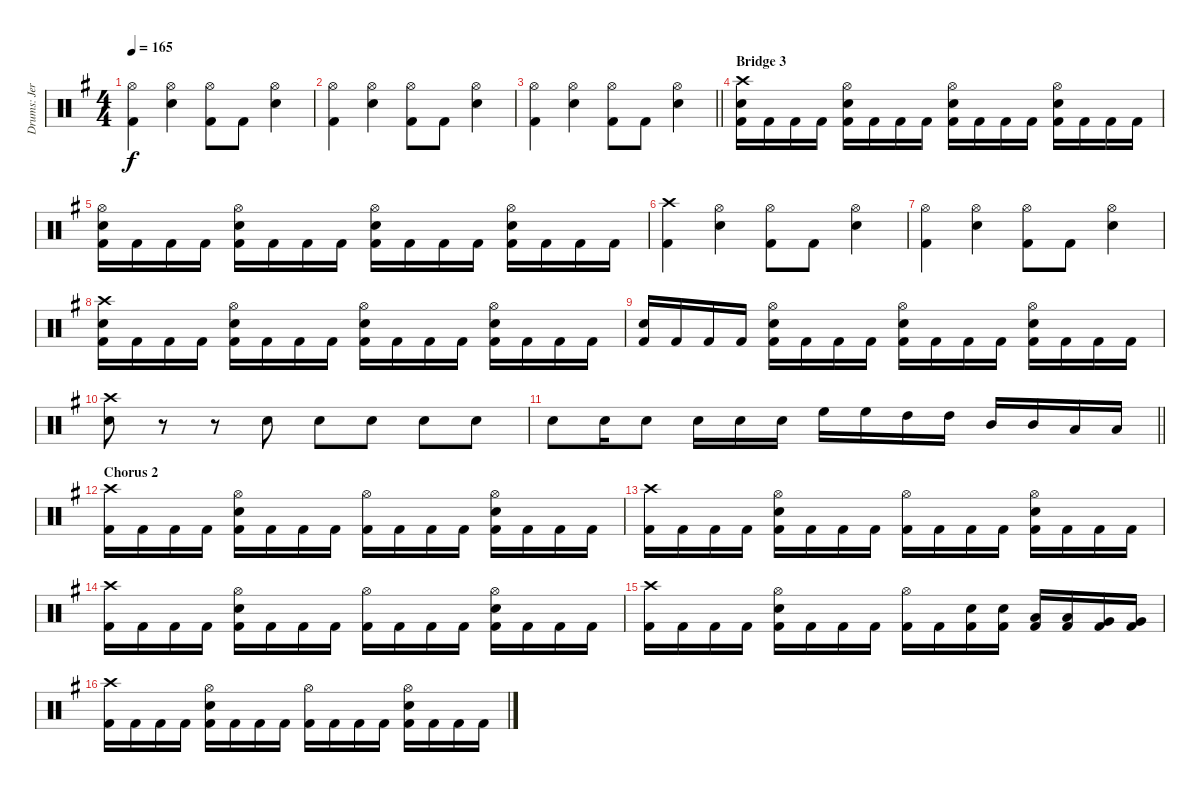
\track ("Drums: Jere Luokkamäki" "Drums: Jer") {instrument percussion}
\staff {score}
\articulation defaults
\ts (4 4)
\tempo 165
\clef neutral
\ks eminor
("Hi-Hat (open)" "Kick (hit) 2").4{dy f} ("Hi-Hat (open)" "Electric Snare (hit)").4 ("Hi-Hat (open)" "Kick (hit) 2").8 "Kick (hit) 2".8 ("Hi-Hat (open)" "Electric Snare (hit)").4 |
("Hi-Hat (open)" "Kick (hit) 2").4 ("Hi-Hat (open)" "Electric Snare (hit)").4 ("Hi-Hat (open)" "Kick (hit) 2").8 "Kick (hit) 2".8 ("Hi-Hat (open)" "Electric Snare (hit)").4 |
\barLineRight lightlight
("Hi-Hat (open)" "Kick (hit) 2").4 ("Hi-Hat (open)" "Electric Snare (hit)").4 ("Hi-Hat (open)" "Kick (hit) 2").8 "Kick (hit) 2".8 ("Hi-Hat (open)" "Electric Snare (hit)").4 |
\section ("" "Bridge 3")
("Crash high (hit)" "Electric Snare (hit)" "Kick (hit) 2").16 "Kick (hit) 2".16 "Kick (hit) 2".16 "Kick (hit) 2".16 ("Hi-Hat (open)" "Electric Snare (hit)" "Kick (hit) 2").16 "Kick (hit) 2".16 "Kick (hit) 2".16 "Kick (hit) 2".16 ("Hi-Hat (open)" "Electric Snare (hit)" "Kick (hit) 2").16 "Kick (hit) 2".16 "Kick (hit) 2".16 "Kick (hit) 2".16 ("Hi-Hat (open)" "Electric Snare (hit)" "Kick (hit) 2").16 "Kick (hit) 2".16 "Kick (hit) 2".16 "Kick (hit) 2".16 |
("Hi-Hat (open)" "Electric Snare (hit)" "Kick (hit) 2").16 "Kick (hit) 2".16 "Kick (hit) 2".16 "Kick (hit) 2".16 ("Hi-Hat (open)" "Electric Snare (hit)" "Kick (hit) 2").16 "Kick (hit) 2".16 "Kick (hit) 2".16 "Kick (hit) 2".16 ("Hi-Hat (open)" "Electric Snare (hit)" "Kick (hit) 2").16 "Kick (hit) 2".16 "Kick (hit) 2".16 "Kick (hit) 2".16 ("Hi-Hat (open)" "Electric Snare (hit)" "Kick (hit) 2").16 "Kick (hit) 2".16 "Kick (hit) 2".16 "Kick (hit) 2".16 |
("Crash high (hit)" "Kick (hit) 2").4 ("Hi-Hat (open)" "Electric Snare (hit)").4 ("Hi-Hat (open)" "Kick (hit) 2").8 "Kick (hit) 2".8 ("Hi-Hat (open)" "Electric Snare (hit)").4 |
("Hi-Hat (open)" "Kick (hit) 2").4 ("Hi-Hat (open)" "Electric Snare (hit)").4 ("Hi-Hat (open)" "Kick (hit) 2").8 "Kick (hit) 2".8 ("Hi-Hat (open)" "Electric Snare (hit)").4 |
("Crash high (hit)" "Electric Snare (hit)" "Kick (hit) 2").16 "Kick (hit) 2".16 "Kick (hit) 2".16 "Kick (hit) 2".16 ("Hi-Hat (open)" "Electric Snare (hit)" "Kick (hit) 2").16 "Kick (hit) 2".16 "Kick (hit) 2".16 "Kick (hit) 2".16 ("Hi-Hat (open)" "Electric Snare (hit)" "Kick (hit) 2").16 "Kick (hit) 2".16 "Kick (hit) 2".16 "Kick (hit) 2".16 ("Hi-Hat (open)" "Electric Snare (hit)" "Kick (hit) 2").16 "Kick (hit) 2".16 "Kick (hit) 2".16 "Kick (hit) 2".16 |
("Electric Snare (hit)" "Kick (hit) 2").16 "Kick (hit) 2".16 "Kick (hit) 2".16 "Kick (hit) 2".16 ("Hi-Hat (open)" "Electric Snare (hit)" "Kick (hit) 2").16 "Kick (hit) 2".16 "Kick (hit) 2".16 "Kick (hit) 2".16 ("Hi-Hat (open)" "Electric Snare (hit)" "Kick (hit) 2").16 "Kick (hit) 2".16 "Kick (hit) 2".16 "Kick (hit) 2".16 ("Hi-Hat (open)" "Electric Snare (hit)" "Kick (hit) 2").16 "Kick (hit) 2".16 "Kick (hit) 2".16 "Kick (hit) 2".16 |
("Crash high (hit)" "Electric Snare (hit)").8 r.8 r.8 "Electric Snare (hit)".8 "Electric Snare (hit)".8 "Electric Snare (hit)".8 "Electric Snare (hit)".8 "Electric Snare (hit)".8 |
\barLineRight lightlight "Electric Snare (hit)".8 "Electric Snare (hit)".16 "Electric Snare (hit)".8 "Electric Snare (hit)".16 "Electric Snare (hit)".16 "Electric Snare (hit)".16 "High Floor Tom (hit)".16 "High Floor Tom (hit)".16 "High Tom (hit)".16 "High Tom (hit)".16 "Mid Tom (hit)".16 "Mid Tom (hit)".16 "Low Tom (hit)".16 "Low Tom (hit)".16
|
\section ("" "Chorus 2")
("Crash high (hit)" "Kick (hit) 2").16 "Kick (hit) 2".16 "Kick (hit) 2".16 "Kick (hit) 2".16 ("Hi-Hat (open)" "Electric Snare (hit)" "Kick (hit) 2").16 "Kick (hit) 2".16 "Kick (hit) 2".16 "Kick (hit) 2".16 ("Hi-Hat (open)" "Kick (hit) 2").16 "Kick (hit) 2".16 "Kick (hit) 2".16 "Kick (hit) 2".16 ("Hi-Hat (open)" "Electric Snare (hit)" "Kick (hit) 2").16 "Kick (hit) 2".16 "Kick (hit) 2".16 "Kick (hit) 2".16 |
("Crash high (hit)" "Kick (hit) 2").16 "Kick (hit) 2".16 "Kick (hit) 2".16 "Kick (hit) 2".16 ("Hi-Hat (open)" "Electric Snare (hit)" "Kick (hit) 2").16 "Kick (hit) 2".16 "Kick (hit) 2".16 "Kick (hit) 2".16 ("Hi-Hat (open)" "Kick (hit) 2").16 "Kick (hit) 2".16 "Kick (hit) 2".16 "Kick (hit) 2".16 ("Hi-Hat (open)" "Electric Snare (hit)" "Kick (hit) 2").16 "Kick (hit) 2".16 "Kick (hit) 2".16 "Kick (hit) 2".16 |
("Crash high (hit)" "Kick (hit) 2").16 "Kick (hit) 2".16 "Kick (hit) 2".16 "Kick (hit) 2".16 ("Hi-Hat (open)" "Electric Snare (hit)" "Kick (hit) 2").16 "Kick (hit) 2".16 "Kick (hit) 2".16 "Kick (hit) 2".16 ("Hi-Hat (open)" "Kick (hit) 2").16 "Kick (hit) 2".16 "Kick (hit) 2".16 "Kick (hit) 2".16 ("Hi-Hat (open)" "Electric Snare (hit)" "Kick (hit) 2").16 "Kick (hit) 2".16 "Kick (hit) 2".16 "Kick (hit) 2".16 |
("Crash high (hit)" "Kick (hit) 2").16 "Kick (hit) 2".16 "Kick (hit) 2".16 "Kick (hit) 2".16 ("Hi-Hat (open)" "Electric Snare (hit)" "Kick (hit) 2").16 "Kick (hit) 2".16 "Kick (hit) 2".16 "Kick (hit) 2".16 ("Hi-Hat (open)" "Kick (hit) 2").16 "Kick (hit) 2".16 ("Electric Snare (hit)" "Kick (hit) 2").16 ("Electric Snare (hit)" "Kick (hit) 2").16 ("Low Tom (hit)" "Kick (hit) 2").16 ("Low Tom (hit)" "Kick (hit) 2").16 ("Very Low Tom (hit)" "Kick (hit) 2").16 ("Very Low Tom (hit)" "Kick (hit) 2").16 |
("Crash high (hit)" "Kick (hit) 2").16 "Kick (hit) 2".16 "Kick (hit) 2".16 "Kick (hit) 2".16 ("Hi-Hat (open)" "Electric Snare (hit)" "Kick (hit) 2").16 "Kick (hit) 2".16 "Kick (hit) 2".16 "Kick (hit) 2".16 ("Hi-Hat (open)" "Kick (hit) 2").16 "Kick (hit) 2".16 "Kick (hit) 2".16 "Kick (hit) 2".16 ("Hi-Hat (open)" "Electric Snare (hit)" "Kick (hit) 2").16 "Kick (hit) 2".16 "Kick (hit) 2".16 "Kick (hit) 2".16
